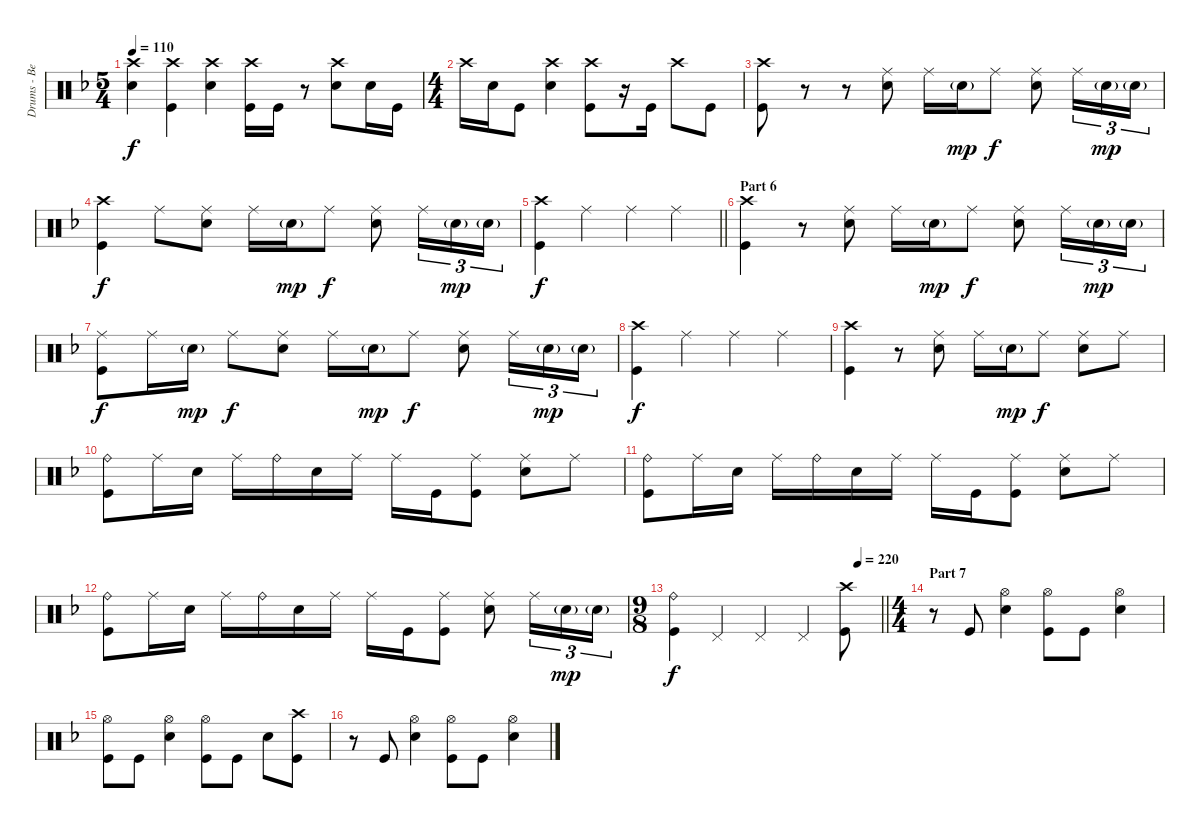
\track ("Drums - Ben Johnston" "Drums - Be") {instrument percussion}
\staff {score}
\articulation defaults
\ts (5 4)
\tempo 110
\clef neutral
\ks dminor
("Crash high (hit)" "Snare (hit) 2").4{dy f} ("Crash high (hit)" "Kick (hit)").4 ("Crash high (hit)" "Snare (hit) 2").4 ("Crash high (hit)" "Kick (hit)").16 "Kick (hit)".16 r.8 ("Crash high (hit)" "Snare (hit) 2").8 "Snare (hit) 2".16 "Kick (hit)".16 |
\ts (4 4)
"Crash high (hit)".16 "Snare (hit) 2".16 "Kick (hit)".8 ("Crash high (hit)" "Snare (hit) 2").4 ("Crash high (hit)" "Kick (hit)").8 r.16 "Kick (hit)".16 "Crash high (hit)".8 "Kick (hit)".8 |
("Crash high (hit)" "Kick (hit)").8 r.8 r.8 ("Ride (middle)" "Snare (hit) 2").8 "Ride (middle)".16 "Snare (hit) 2"{g}.16{dy mp} "Ride (middle)".8{dy f} ("Ride (middle)" "Snare (hit) 2").8 "Ride (middle)".16{tu (3 2)} "Snare (hit) 2"{g}.16{tu (3 2) dy mp} "Snare (hit) 2"{g}.16{tu (3 2)} |
("Crash high (hit)" "Kick (hit)").4{dy f} "Ride (middle)".8 ("Ride (middle)" "Snare (hit) 2").8 "Ride (middle)".16 "Snare (hit) 2"{g}.16{dy mp} "Ride (middle)".8{dy f} ("Ride (middle)" "Snare (hit) 2").8 "Ride (middle)".16{tu (3 2)} "Snare (hit) 2"{g}.16{tu (3 2) dy mp} "Snare (hit) 2"{g}.16{tu (3 2)} |
\barLineRight lightlight
("Crash high (hit)" "Kick (hit)").4{dy f} "Ride (middle)".4 "Ride (middle)".4 "Ride (middle)".4 |
\section ("" "Part 6")
("Crash high (hit)" "Kick (hit)").4 r.8 ("Ride (middle)" "Snare (hit) 2").8 "Ride (middle)".16 "Snare (hit) 2"{g}.16{dy mp} "Ride (middle)".8{dy f} ("Ride (middle)" "Snare (hit) 2").8 "Ride (middle)".16{tu (3 2)} "Snare (hit) 2"{g}.16{tu (3 2) dy mp} "Snare (hit) 2"{g}.16{tu (3 2)} |
("Ride (middle)" "Kick (hit)").8{dy f} "Ride (middle)".16 "Snare (hit) 2"{g}.16{dy mp} "Ride (middle)".8{dy f} ("Ride (middle)" "Snare (hit) 2").8 "Ride (middle)".16 "Snare (hit) 2"{g}.16{dy mp} "Ride (middle)".8{dy f} ("Ride (middle)" "Snare (hit) 2").8 "Ride (middle)".16{tu (3 2)} "Snare (hit) 2"{g}.16{tu (3 2) dy mp} "Snare (hit) 2"{g}.16{tu (3 2)} |
("Crash high (hit)" "Kick (hit)").4{dy f} "Ride (middle)".4 "Ride (middle)".4 "Ride (middle)".4 |
("Crash high (hit)" "Kick (hit)").4 r.8 ("Ride (middle)" "Snare (hit) 2").8 "Ride (middle)".16 "Snare (hit) 2"{g}.16{dy mp} "Ride (middle)".8{dy f} ("Ride (middle)" "Snare (hit) 2").8 "Ride (middle)".8 |
("Ride (bell)" "Kick (hit)").8 "Ride (middle)".16 "Snare (hit) 2".16 "Ride (middle)".16 "Ride (bell)".16 "Snare (hit) 2".16 "Ride (middle)".16 "Ride (middle)".16 "Kick (hit)".16 ("Ride (middle)" "Kick (hit)").8 ("Ride (middle)" "Snare (hit) 2").8 "Ride (middle)".8 |
("Ride (bell)" "Kick (hit)").8 "Ride (middle)".16 "Snare (hit) 2".16 "Ride (middle)".16 "Ride (bell)".16 "Snare (hit) 2".16 "Ride (middle)".16 "Ride (middle)".16 "Kick (hit)".16 ("Ride (middle)" "Kick (hit)").8 ("Ride (middle)" "Snare (hit) 2").8 "Ride (middle)".8 |
("Ride (bell)" "Kick (hit)").8 "Ride (middle)".16 "Snare (hit) 2".16 "Ride (middle)".16 "Ride (bell)".16 "Snare (hit) 2".16 "Ride (middle)".16 "Ride (middle)".16 "Kick (hit)".16 ("Ride (middle)" "Kick (hit)").8 ("Ride (middle)" "Snare (hit) 2").8 "Ride (middle)".16{tu (3 2)} "Snare (hit) 2"{g}.16{tu (3 2) dy mp} "Snare (hit) 2"{g}.16{tu (3 2)} |
\ts (9 8)
\tempo (220 0.8888888888888888)
\barLineRight lightlight
("Ride (bell)" "Kick (hit)").4{dy f} "Pedal Hi-Hat (hit)".4 "Pedal Hi-Hat (hit)".4 "Pedal Hi-Hat (hit)".4 ("Crash high (hit)" "Kick (hit)").8 |
\ts (4 4)
\section ("" "Part 7")
r.8 "Kick (hit)".8 ("Hi-Hat (open)" "Snare (hit) 2").4 ("Hi-Hat (open)" "Kick (hit)").8 "Kick (hit)".8 ("Hi-Hat (open)" "Snare (hit) 2").4 |
("Hi-Hat (open)" "Kick (hit)").8 "Kick (hit)".8 ("Hi-Hat (open)" "Snare (hit) 2").4 ("Hi-Hat (open)" "Kick (hit)").8 "Kick (hit)".8 "Snare (hit) 2".8 ("Crash high (hit)" "Kick (hit)").8 |
r.8 "Kick (hit)".8 ("Hi-Hat (open)" "Snare (hit) 2").4 ("Hi-Hat (open)" "Kick (hit)").8 "Kick (hit)".8 ("Hi-Hat (open)" "Snare (hit) 2").4
